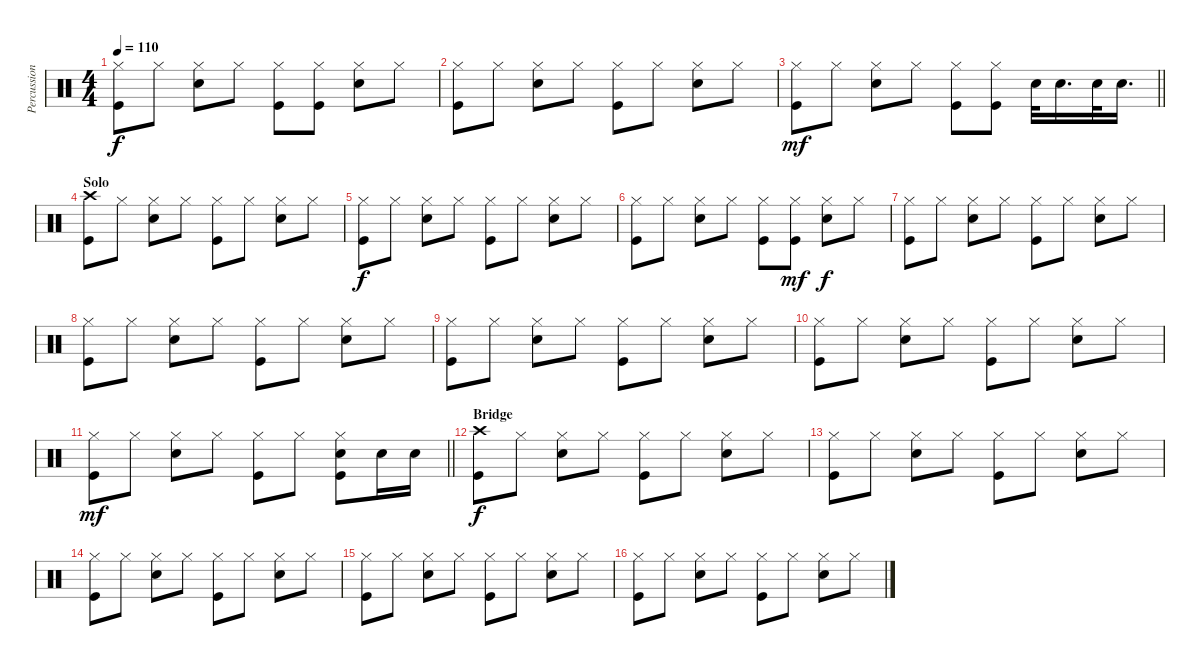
\track ("Percussion" "Percussion") {instrument percussion}
\staff {score}
\articulation defaults
\ts (4 4)
\tempo 110
\clef neutral
\ks c
("Hi-Hat (closed)" "Kick (hit)").8{dy f} "Hi-Hat (closed)".8 ("Hi-Hat (closed)" "Snare (hit) 2").8 "Hi-Hat (closed)".8 ("Hi-Hat (closed)" "Kick (hit)").8 ("Hi-Hat (closed)" "Kick (hit)").8 ("Hi-Hat (closed)" "Snare (hit) 2").8 "Hi-Hat (closed)".8 |
("Hi-Hat (closed)" "Kick (hit)").8 "Hi-Hat (closed)".8 ("Hi-Hat (closed)" "Snare (hit) 2").8 "Hi-Hat (closed)".8 ("Hi-Hat (closed)" "Kick (hit)").8 "Hi-Hat (closed)".8 ("Hi-Hat (closed)" "Snare (hit) 2").8 "Hi-Hat (closed)".8 |
\barLineRight lightlight
("Hi-Hat (closed)" "Kick (hit)").8{dy mf} "Hi-Hat (closed)".8 ("Hi-Hat (closed)" "Snare (hit) 2").8 "Hi-Hat (closed)".8 ("Hi-Hat (closed)" "Kick (hit)").8 ("Hi-Hat (closed)" "Kick (hit)").8 "Snare (hit) 2".32 "Snare (hit) 2".16{d} "Snare (hit) 2".32 "Snare (hit) 2".16{d} |
\section ("" "Solo")
("Crash high (hit)" "Kick (hit)").8 "Hi-Hat (closed)".8 ("Hi-Hat (closed)" "Snare (hit) 2").8 "Hi-Hat (closed)".8 ("Hi-Hat (closed)" "Kick (hit)").8 "Hi-Hat (closed)".8 ("Hi-Hat (closed)" "Snare (hit) 2").8 "Hi-Hat (closed)".8 |
("Hi-Hat (closed)" "Kick (hit)").8{dy f} "Hi-Hat (closed)".8 ("Hi-Hat (closed)" "Snare (hit) 2").8 "Hi-Hat (closed)".8 ("Hi-Hat (closed)" "Kick (hit)").8 "Hi-Hat (closed)".8 ("Hi-Hat (closed)" "Snare (hit) 2").8 "Hi-Hat (closed)".8 |
("Hi-Hat (closed)" "Kick (hit)").8 "Hi-Hat (closed)".8 ("Hi-Hat (closed)" "Snare (hit) 2").8 "Hi-Hat (closed)".8 ("Hi-Hat (closed)" "Kick (hit)").8 ("Hi-Hat (closed)" "Kick (hit)").8{dy mf} ("Hi-Hat (closed)" "Snare (hit) 2").8{dy f} "Hi-Hat (closed)".8 |
("Hi-Hat (closed)" "Kick (hit)").8 "Hi-Hat (closed)".8 ("Hi-Hat (closed)" "Snare (hit) 2").8 "Hi-Hat (closed)".8 ("Hi-Hat (closed)" "Kick (hit)").8 "Hi-Hat (closed)".8 ("Hi-Hat (closed)" "Snare (hit) 2").8 "Hi-Hat (closed)".8 |
("Hi-Hat (closed)" "Kick (hit)").8 "Hi-Hat (closed)".8 ("Hi-Hat (closed)" "Snare (hit) 2").8 "Hi-Hat (closed)".8 ("Hi-Hat (closed)" "Kick (hit)").8 "Hi-Hat (closed)".8 ("Hi-Hat (closed)" "Snare (hit) 2").8 "Hi-Hat (closed)".8 |
("Hi-Hat (closed)" "Kick (hit)").8 "Hi-Hat (closed)".8 ("Hi-Hat (closed)" "Snare (hit) 2").8 "Hi-Hat (closed)".8 ("Hi-Hat (closed)" "Kick (hit)").8 "Hi-Hat (closed)".8 ("Hi-Hat (closed)" "Snare (hit) 2").8 "Hi-Hat (closed)".8 |
("Hi-Hat (closed)" "Kick (hit)").8 "Hi-Hat (closed)".8 ("Hi-Hat (closed)" "Snare (hit) 2").8 "Hi-Hat (closed)".8 ("Hi-Hat (closed)" "Kick (hit)").8 "Hi-Hat (closed)".8 ("Hi-Hat (closed)" "Snare (hit) 2").8 "Hi-Hat (closed)".8 |
\barLineRight lightlight
("Hi-Hat (closed)" "Kick (hit)").8{dy mf} "Hi-Hat (closed)".8 ("Hi-Hat (closed)" "Snare (hit) 2").8 "Hi-Hat (closed)".8 ("Hi-Hat (closed)" "Kick (hit)").8 "Hi-Hat (closed)".8 ("Hi-Hat (closed)" "Snare (hit) 2" "Kick (hit)").8 "Snare (hit) 2".16 "Snare (hit) 2".16 |
\section ("" "Bridge")
("Crash high (hit)" "Kick (hit)").8{dy f} "Hi-Hat (closed)".8 ("Hi-Hat (closed)" "Snare (hit) 2").8 "Hi-Hat (closed)".8 ("Hi-Hat (closed)" "Kick (hit)").8 "Hi-Hat (closed)".8 ("Hi-Hat (closed)" "Snare (hit) 2").8 "Hi-Hat (closed)".8 |
("Hi-Hat (closed)" "Kick (hit)").8 "Hi-Hat (closed)".8 ("Hi-Hat (closed)" "Snare (hit) 2").8 "Hi-Hat (closed)".8 ("Hi-Hat (closed)" "Kick (hit)").8 "Hi-Hat (closed)".8 ("Hi-Hat (closed)" "Snare (hit) 2").8 "Hi-Hat (closed)".8 |
("Hi-Hat (closed)" "Kick (hit)").8 "Hi-Hat (closed)".8 ("Hi-Hat (closed)" "Snare (hit) 2").8 "Hi-Hat (closed)".8 ("Hi-Hat (closed)" "Kick (hit)").8 "Hi-Hat (closed)".8 ("Hi-Hat (closed)" "Snare (hit) 2").8 "Hi-Hat (closed)".8 |
("Hi-Hat (closed)" "Kick (hit)").8 "Hi-Hat (closed)".8 ("Hi-Hat (closed)" "Snare (hit) 2").8 "Hi-Hat (closed)".8 ("Hi-Hat (closed)" "Kick (hit)").8 "Hi-Hat (closed)".8 ("Hi-Hat (closed)" "Snare (hit) 2").8 "Hi-Hat (closed)".8 |
("Hi-Hat (closed)" "Kick (hit)").8 "Hi-Hat (closed)".8 ("Hi-Hat (closed)" "Snare (hit) 2").8 "Hi-Hat (closed)".8 ("Hi-Hat (closed)" "Kick (hit)").8 "Hi-Hat (closed)".8 ("Hi-Hat (closed)" "Snare (hit) 2").8 "Hi-Hat (closed)".8
